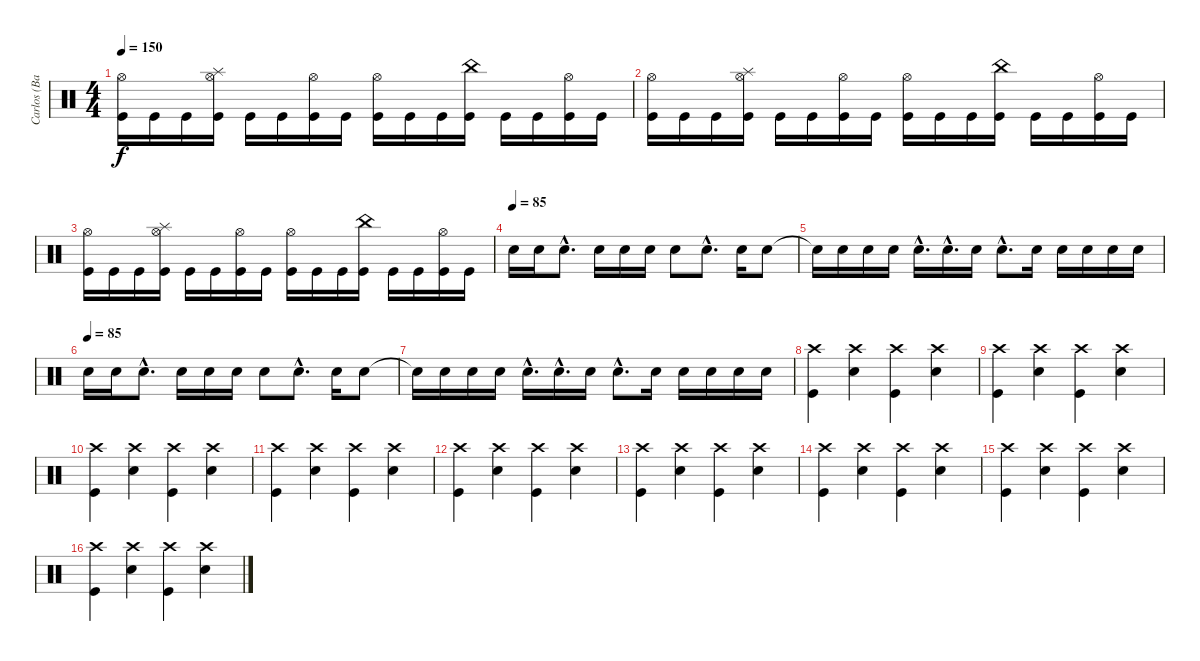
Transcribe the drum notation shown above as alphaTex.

\track ("Carlos (Batería)" "Carlos (Ba") {instrument percussion}
\staff {score}
\articulation defaults
\ts (4 4)
\tempo 150
\clef neutral
\ks c
("Kick (hit)" "Hi-Hat (open)").16{dy f} "Kick (hit)".16 "Kick (hit)".16 ("Kick (hit)" "Hi-Hat (open)" "Splash (hit)").16 "Kick (hit)".16 "Kick (hit)".16 ("Kick (hit)" "Hi-Hat (open)").16 "Kick (hit)".16 ("Kick (hit)" "Hi-Hat (open)").16 "Kick (hit)".16 "Kick (hit)".16 ("Kick (hit)" "China (hit)").16 "Kick (hit)".16 "Kick (hit)".16 ("Kick (hit)" "Hi-Hat (open)").16 "Kick (hit)".16 |
("Kick (hit)" "Hi-Hat (open)").16 "Kick (hit)".16 "Kick (hit)".16 ("Kick (hit)" "Hi-Hat (open)" "Splash (hit)").16 "Kick (hit)".16 "Kick (hit)".16 ("Kick (hit)" "Hi-Hat (open)").16 "Kick (hit)".16 ("Kick (hit)" "Hi-Hat (open)").16 "Kick (hit)".16 "Kick (hit)".16 ("Kick (hit)" "China (hit)").16 "Kick (hit)".16 "Kick (hit)".16 ("Kick (hit)" "Hi-Hat (open)").16 "Kick (hit)".16 |
("Kick (hit)" "Hi-Hat (open)").16 "Kick (hit)".16 "Kick (hit)".16 ("Kick (hit)" "Hi-Hat (open)" "Splash (hit)").16 "Kick (hit)".16 "Kick (hit)".16 ("Kick (hit)" "Hi-Hat (open)").16 "Kick (hit)".16 ("Kick (hit)" "Hi-Hat (open)").16 "Kick (hit)".16 "Kick (hit)".16 ("Kick (hit)" "China (hit)").16 "Kick (hit)".16 "Kick (hit)".16 ("Kick (hit)" "Hi-Hat (open)").16 "Kick (hit)".16 |
\tempo (85)
"Snare (hit) 2".16 "Snare (hit) 2".16 "Snare (hit) 2"{hac}.8{d} "Snare (hit) 2".16 "Snare (hit) 2".16 "Snare (hit) 2".16 "Snare (hit) 2".8 "Snare (hit) 2"{hac}.8{d} "Snare (hit) 2".16 "Snare (hit) 2".8 |
"Snare (hit) 2"{t}.16 "Snare (hit) 2".16 "Snare (hit) 2".16 "Snare (hit) 2".16 "Snare (hit) 2"{hac}.16{d} "Snare (hit) 2"{hac}.16{d} "Snare (hit) 2".16 "Snare (hit) 2"{hac}.8{d} "Snare (hit) 2".16 "Snare (hit) 2".16 "Snare (hit) 2".16 "Snare (hit) 2".16 "Snare (hit) 2".16 |
\tempo (85)
"Snare (hit) 2".16 "Snare (hit) 2".16 "Snare (hit) 2"{hac}.8{d} "Snare (hit) 2".16 "Snare (hit) 2".16 "Snare (hit) 2".16 "Snare (hit) 2".8 "Snare (hit) 2"{hac}.8{d} "Snare (hit) 2".16 "Snare (hit) 2".8 |
"Snare (hit) 2"{t}.16 "Snare (hit) 2".16 "Snare (hit) 2".16 "Snare (hit) 2".16 "Snare (hit) 2"{hac}.16{d} "Snare (hit) 2"{hac}.16{d} "Snare (hit) 2".16 "Snare (hit) 2"{hac}.8{d} "Snare (hit) 2".16 "Snare (hit) 2".16 "Snare (hit) 2".16 "Snare (hit) 2".16 "Snare (hit) 2".16 |
("Crash high (hit)" "Kick (hit)").4 ("Crash high (hit)" "Snare (hit) 2").4 ("Crash high (hit)" "Kick (hit)").4 ("Crash high (hit)" "Snare (hit) 2").4 |
("Crash high (hit)" "Kick (hit)").4 ("Crash high (hit)" "Snare (hit) 2").4 ("Crash high (hit)" "Kick (hit)").4 ("Crash high (hit)" "Snare (hit) 2").4 |
("Crash high (hit)" "Kick (hit)").4 ("Crash high (hit)" "Snare (hit) 2").4 ("Crash high (hit)" "Kick (hit)").4 ("Crash high (hit)" "Snare (hit) 2").4 |
("Crash high (hit)" "Kick (hit)").4 ("Crash high (hit)" "Snare (hit) 2").4 ("Crash high (hit)" "Kick (hit)").4 ("Crash high (hit)" "Snare (hit) 2").4 |
("Crash high (hit)" "Kick (hit)").4 ("Crash high (hit)" "Snare (hit) 2").4 ("Crash high (hit)" "Kick (hit)").4 ("Crash high (hit)" "Snare (hit) 2").4 |
("Crash high (hit)" "Kick (hit)").4 ("Crash high (hit)" "Snare (hit) 2").4 ("Crash high (hit)" "Kick (hit)").4 ("Crash high (hit)" "Snare (hit) 2").4 |
("Crash high (hit)" "Kick (hit)").4 ("Crash high (hit)" "Snare (hit) 2").4 ("Crash high (hit)" "Kick (hit)").4 ("Crash high (hit)" "Snare (hit) 2").4 |
("Crash high (hit)" "Kick (hit)").4 ("Crash high (hit)" "Snare (hit) 2").4 ("Crash high (hit)" "Kick (hit)").4 ("Crash high (hit)" "Snare (hit) 2").4 |
("Crash high (hit)" "Kick (hit)").4 ("Crash high (hit)" "Snare (hit) 2").4 ("Crash high (hit)" "Kick (hit)").4 ("Crash high (hit)" "Snare (hit) 2").4
